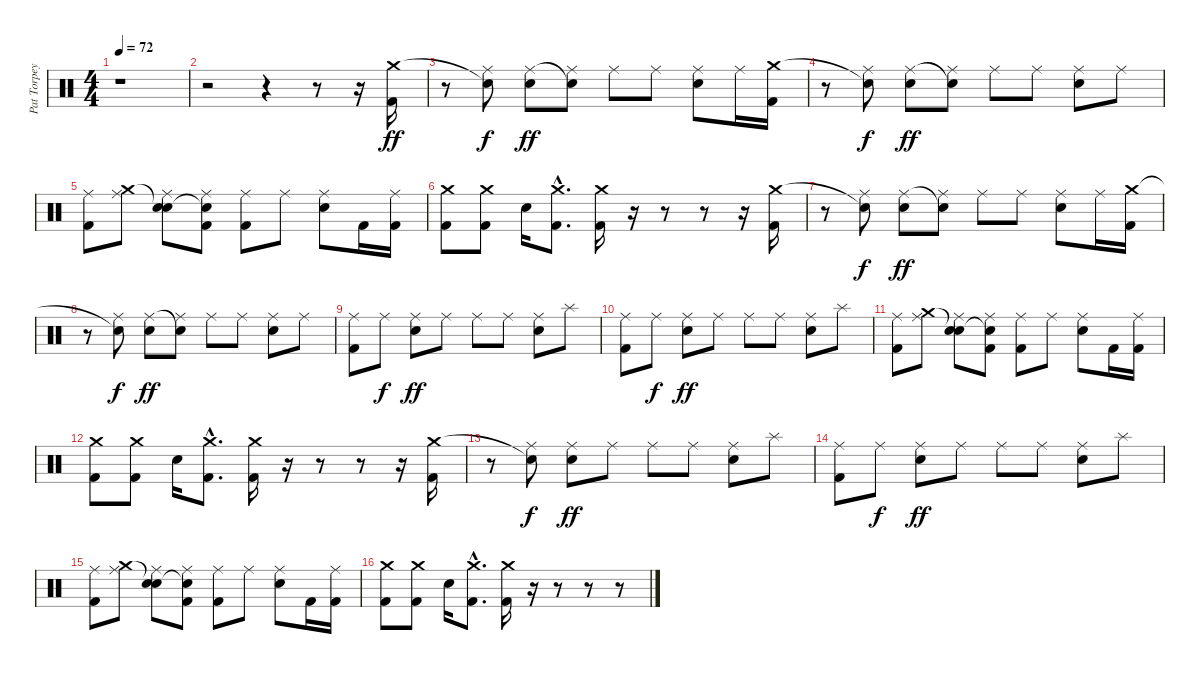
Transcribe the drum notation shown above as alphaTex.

\track ("Pat Torpey" "Pat Torpey") {instrument percussion}
\staff {score}
\articulation defaults
\ts (4 4)
\tempo 72
\clef neutral
\ks c
r.1{dy ff} |
r.2 r.4 r.8 r.16 ("Crash medium (hit)" "Kick (hit) 2").16 |
r.8 ("Snare (hit)"{t} "Ride (middle)").8{dy f} ("Ride (middle)" "Snare (hit) 2").8{dy ff} ("Snare (hit)"{t} "Ride (middle)").8 "Ride (middle)".8 "Ride (middle)".8 ("Ride (middle)" "Snare (hit) 2").8 "Ride (middle)".16 ("Crash medium (hit)" "Kick (hit) 2").16 |
r.8 ("Snare (hit)"{t} "Ride (middle)").8{dy f} ("Ride (middle)" "Snare (hit) 2").8{dy ff} ("Snare (hit)"{t} "Ride (middle)").8 "Ride (middle)".8 "Ride (middle)".8 ("Ride (middle)" "Snare (hit) 2").8 "Ride (middle)".8 |
("Ride (middle)" "Kick (hit) 2").8 ("Crash medium (hit)" "Ride (middle)").8 ("Snare (hit)"{t} "Ride (middle)" "Snare (hit) 2").8 ("Snare (hit)"{t} "Ride (middle)" "Kick (hit) 2").8 ("Ride (middle)" "Kick (hit) 2").8 "Ride (middle)".8 ("Ride (middle)" "Snare (hit) 2").8 "Kick (hit) 2".16 ("Ride (middle)" "Kick (hit) 2").16 |
("Crash medium (hit)" "Kick (hit) 2").8 ("Crash medium (hit)" "Kick (hit) 2").8 "Snare (hit) 2".16 ("Crash medium (hit)"{hac} "Kick (hit) 2"{hac}).8{d} ("Crash medium (hit)" "Kick (hit) 2").16 r.16 r.8 r.8 r.16 ("Crash medium (hit)" "Kick (hit) 2").16 |
r.8 ("Snare (hit)"{t} "Ride (middle)").8{dy f} ("Ride (middle)" "Snare (hit) 2").8{dy ff} ("Snare (hit)"{t} "Ride (middle)").8 "Ride (middle)".8 "Ride (middle)".8 ("Ride (middle)" "Snare (hit) 2").8 "Ride (middle)".16 ("Crash medium (hit)" "Kick (hit) 2").16 |
r.8 ("Snare (hit)"{t} "Ride (middle)").8{dy f} ("Ride (middle)" "Snare (hit) 2").8{dy ff} ("Snare (hit)"{t} "Ride (middle)").8 "Ride (middle)".8 "Ride (middle)".8 ("Ride (middle)" "Snare (hit) 2").8 "Ride (middle)".8 |
("Ride (middle)" "Kick (hit) 2").8 "Ride (middle)".8{dy f} ("Ride (middle)" "Snare (hit) 2").8{dy ff} "Ride (middle)".8 "Ride (middle)".8 "Ride (middle)".8 ("Ride (middle)" "Snare (hit) 2").8 "Splash (hit)".8 |
("Ride (middle)" "Kick (hit) 2").8 "Ride (middle)".8{dy f} ("Ride (middle)" "Snare (hit) 2").8{dy ff} "Ride (middle)".8 "Ride (middle)".8 "Ride (middle)".8 ("Ride (middle)" "Snare (hit) 2").8 "Splash (hit)".8 |
("Ride (middle)" "Kick (hit) 2").8 ("Crash medium (hit)" "Ride (middle)").8 ("Snare (hit)"{t} "Ride (middle)" "Snare (hit) 2").8 ("Snare (hit)"{t} "Ride (middle)" "Kick (hit) 2").8 ("Ride (middle)" "Kick (hit) 2").8 "Ride (middle)".8 ("Ride (middle)" "Snare (hit) 2").8 "Kick (hit) 2".16 ("Ride (middle)" "Kick (hit) 2").16 |
("Crash medium (hit)" "Kick (hit) 2").8 ("Crash medium (hit)" "Kick (hit) 2").8 "Snare (hit) 2".16 ("Crash medium (hit)"{hac} "Kick (hit) 2"{hac}).8{d} ("Crash medium (hit)" "Kick (hit) 2").16 r.16 r.8 r.8 r.16 ("Crash medium (hit)" "Kick (hit) 2").16 |
r.8 ("Snare (hit)"{t} "Ride (middle)").8{dy f} ("Ride (middle)" "Snare (hit) 2").8{dy ff} "Ride (middle)".8 "Ride (middle)".8 "Ride (middle)".8 ("Ride (middle)" "Snare (hit) 2").8 "Splash (hit)".8 |
("Ride (middle)" "Kick (hit) 2").8 "Ride (middle)".8{dy f} ("Ride (middle)" "Snare (hit) 2").8{dy ff} "Ride (middle)".8 "Ride (middle)".8 "Ride (middle)".8 ("Ride (middle)" "Snare (hit) 2").8 "Splash (hit)".8 |
("Ride (middle)" "Kick (hit) 2").8 ("Crash medium (hit)" "Ride (middle)").8 ("Snare (hit)"{t} "Ride (middle)" "Snare (hit) 2").8 ("Snare (hit)"{t} "Ride (middle)" "Kick (hit) 2").8 ("Ride (middle)" "Kick (hit) 2").8 "Ride (middle)".8 ("Ride (middle)" "Snare (hit) 2").8 "Kick (hit) 2".16 ("Ride (middle)" "Kick (hit) 2").16 |
("Crash medium (hit)" "Kick (hit) 2").8 ("Crash medium (hit)" "Kick (hit) 2").8 "Snare (hit) 2".16 ("Crash medium (hit)"{hac} "Kick (hit) 2"{hac}).8{d} ("Crash medium (hit)" "Kick (hit) 2").16 r.16 r.8 r.8 r.8
